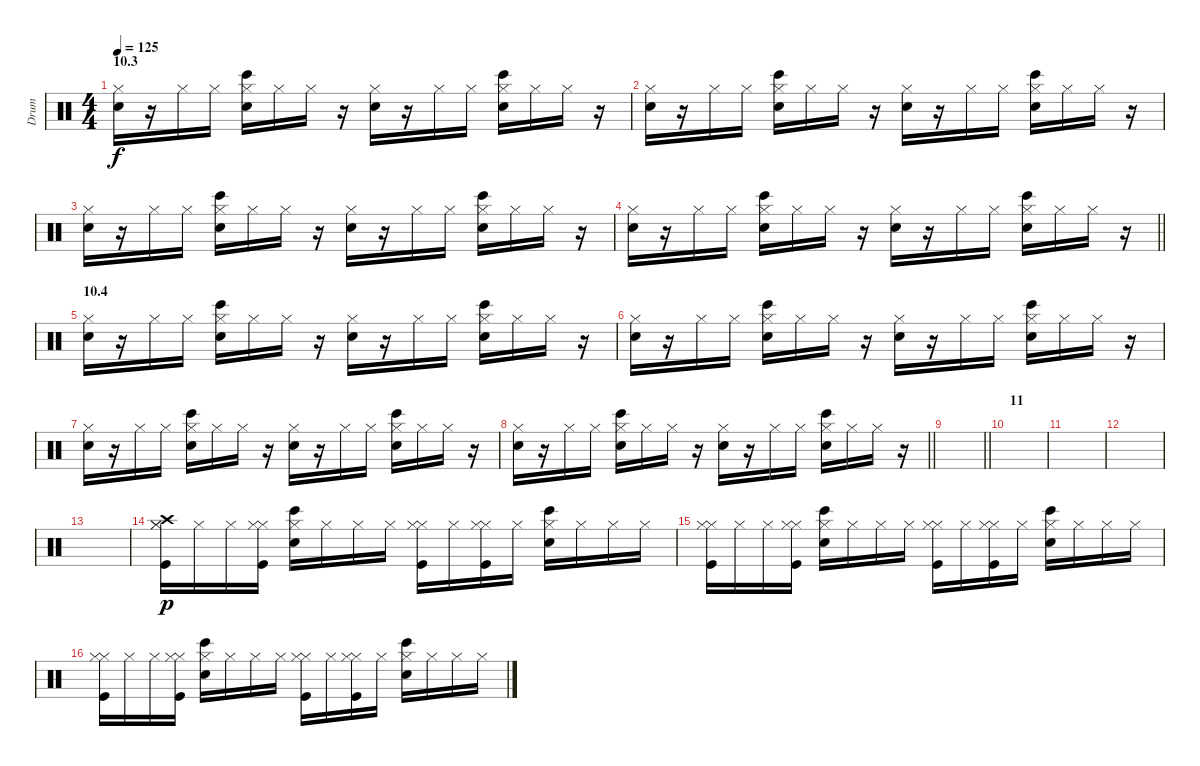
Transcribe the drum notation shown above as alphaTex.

\track ("Drum" "Drum") {instrument percussion}
\staff {score}
\articulation defaults
\ts (4 4)
\section ("" "10.3")
\tempo 125
\clef neutral
\ks c
("Hand Clap (hit)" "Hi-Hat (closed)").16{dy f} r.16 "Hi-Hat (closed)".16 "Hi-Hat (closed)".16 ("Hand Clap (hit)" "Bongo High (hit)" "Hi-Hat (closed)").16 "Hi-Hat (closed)".16 "Hi-Hat (closed)".16 r.16 ("Hand Clap (hit)" "Hi-Hat (closed)").16 r.16 "Hi-Hat (closed)".16 "Hi-Hat (closed)".16 ("Hand Clap (hit)" "Bongo High (hit)" "Hi-Hat (closed)").16 "Hi-Hat (closed)".16 "Hi-Hat (closed)".16 r.16 |
("Hand Clap (hit)" "Hi-Hat (closed)").16 r.16 "Hi-Hat (closed)".16 "Hi-Hat (closed)".16 ("Hand Clap (hit)" "Bongo High (hit)" "Hi-Hat (closed)").16 "Hi-Hat (closed)".16 "Hi-Hat (closed)".16 r.16 ("Hand Clap (hit)" "Hi-Hat (closed)").16 r.16 "Hi-Hat (closed)".16 "Hi-Hat (closed)".16 ("Hand Clap (hit)" "Bongo High (hit)" "Hi-Hat (closed)").16 "Hi-Hat (closed)".16 "Hi-Hat (closed)".16 r.16 |
("Hand Clap (hit)" "Hi-Hat (closed)").16 r.16 "Hi-Hat (closed)".16 "Hi-Hat (closed)".16 ("Hand Clap (hit)" "Bongo High (hit)" "Hi-Hat (closed)").16 "Hi-Hat (closed)".16 "Hi-Hat (closed)".16 r.16 ("Hand Clap (hit)" "Hi-Hat (closed)").16 r.16 "Hi-Hat (closed)".16 "Hi-Hat (closed)".16 ("Hand Clap (hit)" "Bongo High (hit)" "Hi-Hat (closed)").16 "Hi-Hat (closed)".16 "Hi-Hat (closed)".16 r.16 |
\barLineRight lightlight
("Hand Clap (hit)" "Hi-Hat (closed)").16 r.16 "Hi-Hat (closed)".16 "Hi-Hat (closed)".16 ("Hand Clap (hit)" "Bongo High (hit)" "Hi-Hat (closed)").16 "Hi-Hat (closed)".16 "Hi-Hat (closed)".16 r.16 ("Hand Clap (hit)" "Hi-Hat (closed)").16 r.16 "Hi-Hat (closed)".16 "Hi-Hat (closed)".16 ("Hand Clap (hit)" "Bongo High (hit)" "Hi-Hat (closed)").16 "Hi-Hat (closed)".16 "Hi-Hat (closed)".16 r.16 |
\section ("" "10.4")
("Hand Clap (hit)" "Hi-Hat (closed)").16 r.16 "Hi-Hat (closed)".16 "Hi-Hat (closed)".16 ("Hand Clap (hit)" "Bongo High (hit)" "Hi-Hat (closed)").16 "Hi-Hat (closed)".16 "Hi-Hat (closed)".16 r.16 ("Hand Clap (hit)" "Hi-Hat (closed)").16 r.16 "Hi-Hat (closed)".16 "Hi-Hat (closed)".16 ("Hand Clap (hit)" "Bongo High (hit)" "Hi-Hat (closed)").16 "Hi-Hat (closed)".16 "Hi-Hat (closed)".16 r.16 |
("Hand Clap (hit)" "Hi-Hat (closed)").16 r.16 "Hi-Hat (closed)".16 "Hi-Hat (closed)".16 ("Hand Clap (hit)" "Bongo High (hit)" "Hi-Hat (closed)").16 "Hi-Hat (closed)".16 "Hi-Hat (closed)".16 r.16 ("Hand Clap (hit)" "Hi-Hat (closed)").16 r.16 "Hi-Hat (closed)".16 "Hi-Hat (closed)".16 ("Hand Clap (hit)" "Bongo High (hit)" "Hi-Hat (closed)").16 "Hi-Hat (closed)".16 "Hi-Hat (closed)".16 r.16 |
("Hand Clap (hit)" "Hi-Hat (closed)").16 r.16 "Hi-Hat (closed)".16 "Hi-Hat (closed)".16 ("Hand Clap (hit)" "Bongo High (hit)" "Hi-Hat (closed)").16 "Hi-Hat (closed)".16 "Hi-Hat (closed)".16 r.16 ("Hand Clap (hit)" "Hi-Hat (closed)").16 r.16 "Hi-Hat (closed)".16 "Hi-Hat (closed)".16 ("Hand Clap (hit)" "Bongo High (hit)" "Hi-Hat (closed)").16 "Hi-Hat (closed)".16 "Hi-Hat (closed)".16 r.16 |
\barLineRight lightlight
("Hand Clap (hit)" "Hi-Hat (closed)").16 r.16 "Hi-Hat (closed)".16 "Hi-Hat (closed)".16 ("Hand Clap (hit)" "Bongo High (hit)" "Hi-Hat (closed)").16 "Hi-Hat (closed)".16 "Hi-Hat (closed)".16 r.16 ("Hand Clap (hit)" "Hi-Hat (closed)").16 r.16 "Hi-Hat (closed)".16 "Hi-Hat (closed)".16 ("Hand Clap (hit)" "Bongo High (hit)" "Hi-Hat (closed)").16 "Hi-Hat (closed)".16 "Hi-Hat (closed)".16 r.16 |
\barLineRight lightlight
|
\section ("" "11")
|
|
|
|
("Hi-Hat (closed)" "Kick (hit)" "Hi-Hat (closed)" "Crash high (hit)").16{dy p} "Hi-Hat (closed)".16 "Hi-Hat (closed)".16 ("Hi-Hat (closed)" "Kick (hit)" "Hi-Hat (closed)").16 ("Snare (hit) 2" "Bongo High (hit)" "Hi-Hat (closed)").16 "Hi-Hat (closed)".16 "Hi-Hat (closed)".16 "Hi-Hat (closed)".16 ("Hi-Hat (closed)" "Kick (hit)" "Hi-Hat (closed)").16 "Hi-Hat (closed)".16 ("Hi-Hat (closed)" "Kick (hit)" "Hi-Hat (closed)").16 "Hi-Hat (closed)".16 ("Snare (hit) 2" "Bongo High (hit)" "Hi-Hat (closed)").16 "Hi-Hat (closed)".16 "Hi-Hat (closed)".16 "Hi-Hat (closed)".16 |
("Hi-Hat (closed)" "Kick (hit)" "Hi-Hat (closed)").16 "Hi-Hat (closed)".16 "Hi-Hat (closed)".16 ("Hi-Hat (closed)" "Kick (hit)" "Hi-Hat (closed)").16 ("Snare (hit) 2" "Bongo High (hit)" "Hi-Hat (closed)").16 "Hi-Hat (closed)".16 "Hi-Hat (closed)".16 "Hi-Hat (closed)".16 ("Hi-Hat (closed)" "Kick (hit)" "Hi-Hat (closed)").16 "Hi-Hat (closed)".16 ("Hi-Hat (closed)" "Kick (hit)" "Hi-Hat (closed)").16 "Hi-Hat (closed)".16 ("Snare (hit) 2" "Bongo High (hit)" "Hi-Hat (closed)").16 "Hi-Hat (closed)".16 "Hi-Hat (closed)".16 "Hi-Hat (closed)".16 |
("Hi-Hat (closed)" "Kick (hit)" "Hi-Hat (closed)").16 "Hi-Hat (closed)".16 "Hi-Hat (closed)".16 ("Hi-Hat (closed)" "Kick (hit)" "Hi-Hat (closed)").16 ("Snare (hit) 2" "Bongo High (hit)" "Hi-Hat (closed)").16 "Hi-Hat (closed)".16 "Hi-Hat (closed)".16 "Hi-Hat (closed)".16 ("Hi-Hat (closed)" "Kick (hit)" "Hi-Hat (closed)").16 "Hi-Hat (closed)".16 ("Hi-Hat (closed)" "Kick (hit)" "Hi-Hat (closed)").16 "Hi-Hat (closed)".16 ("Snare (hit) 2" "Bongo High (hit)" "Hi-Hat (closed)").16 "Hi-Hat (closed)".16 "Hi-Hat (closed)".16 "Hi-Hat (closed)".16
